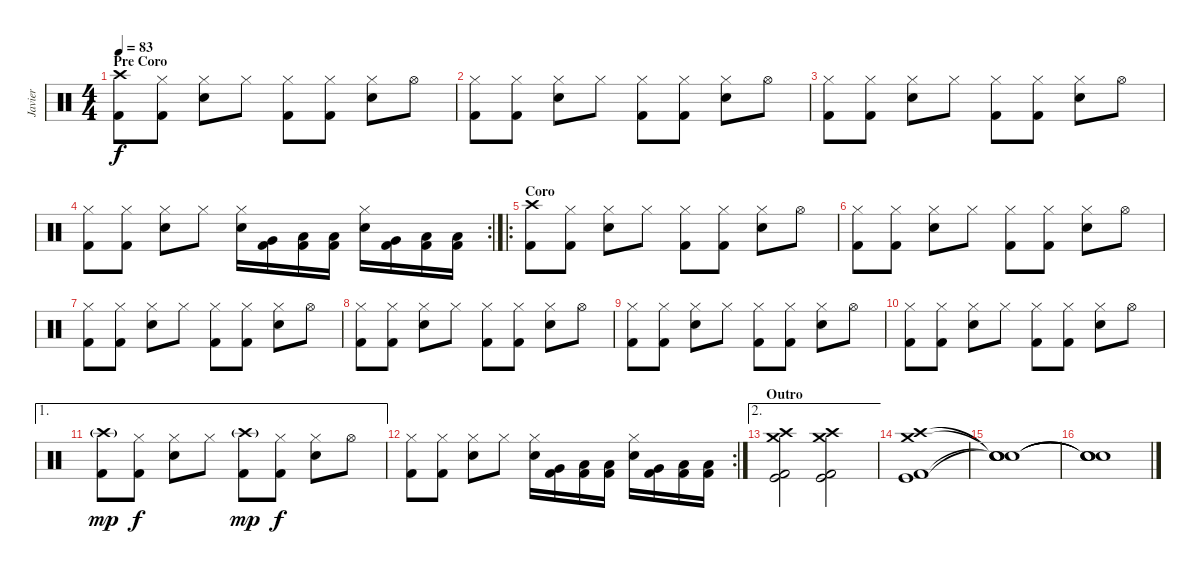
\track ("Javier" "Javier") {instrument percussion}
\staff {score}
\articulation defaults
\ts (4 4)
\section ("" "Pre Coro")
\tempo 83
\clef neutral
\ks c
("Crash high (hit)" "Kick (hit) 2").8{dy f} ("Hi-Hat (closed)" "Kick (hit) 2").8 ("Hi-Hat (closed)" "Snare (hit) 2").8 "Hi-Hat (closed)".8 ("Hi-Hat (closed)" "Kick (hit) 2").8 ("Hi-Hat (closed)" "Kick (hit) 2").8 ("Hi-Hat (closed)" "Snare (hit) 2").8 "Hi-Hat (open)".8 |
("Hi-Hat (closed)" "Kick (hit) 2").8 ("Hi-Hat (closed)" "Kick (hit) 2").8 ("Hi-Hat (closed)" "Snare (hit) 2").8 "Hi-Hat (closed)".8 ("Hi-Hat (closed)" "Kick (hit) 2").8 ("Hi-Hat (closed)" "Kick (hit) 2").8 ("Hi-Hat (closed)" "Snare (hit) 2").8 "Hi-Hat (open)".8 |
("Hi-Hat (closed)" "Kick (hit) 2").8 ("Hi-Hat (closed)" "Kick (hit) 2").8 ("Hi-Hat (closed)" "Snare (hit) 2").8 "Hi-Hat (closed)".8 ("Hi-Hat (closed)" "Kick (hit) 2").8 ("Hi-Hat (closed)" "Kick (hit) 2").8 ("Hi-Hat (closed)" "Snare (hit) 2").8 "Hi-Hat (open)".8 |
\rc 2
("Hi-Hat (closed)" "Kick (hit) 2").8 ("Hi-Hat (closed)" "Kick (hit) 2").8 ("Hi-Hat (closed)" "Snare (hit) 2").8 "Hi-Hat (closed)".8 ("Hi-Hat (closed)" "Snare (hit) 2").16 ("Very Low Tom (hit)" "Kick (hit) 2").16 ("Low Tom (hit)" "Kick (hit) 2").16 ("Low Floor Tom (hit)" "Kick (hit) 2").16 ("Hi-Hat (closed)" "Snare (hit) 2").16 ("Very Low Tom (hit)" "Kick (hit) 2").16 ("Low Tom (hit)" "Kick (hit) 2").16 ("Low Floor Tom (hit)" "Kick (hit) 2").16 |
\ro
\section ("" "Coro")
("Crash high (hit)" "Kick (hit) 2").8 ("Hi-Hat (closed)" "Kick (hit) 2").8 ("Hi-Hat (closed)" "Snare (hit) 2").8 "Hi-Hat (closed)".8 ("Hi-Hat (closed)" "Kick (hit) 2").8 ("Hi-Hat (closed)" "Kick (hit) 2").8 ("Hi-Hat (closed)" "Snare (hit) 2").8 "Hi-Hat (open)".8 |
("Hi-Hat (closed)" "Kick (hit) 2").8 ("Hi-Hat (closed)" "Kick (hit) 2").8 ("Hi-Hat (closed)" "Snare (hit) 2").8 "Hi-Hat (closed)".8 ("Hi-Hat (closed)" "Kick (hit) 2").8 ("Hi-Hat (closed)" "Kick (hit) 2").8 ("Hi-Hat (closed)" "Snare (hit) 2").8 "Hi-Hat (open)".8 |
("Hi-Hat (closed)" "Kick (hit) 2").8 ("Hi-Hat (closed)" "Kick (hit) 2").8 ("Hi-Hat (closed)" "Snare (hit) 2").8 "Hi-Hat (closed)".8 ("Hi-Hat (closed)" "Kick (hit) 2").8 ("Hi-Hat (closed)" "Kick (hit) 2").8 ("Hi-Hat (closed)" "Snare (hit) 2").8 "Hi-Hat (open)".8 |
("Hi-Hat (closed)" "Kick (hit) 2").8 ("Hi-Hat (closed)" "Kick (hit) 2").8 ("Hi-Hat (closed)" "Snare (hit) 2").8 "Hi-Hat (closed)".8 ("Hi-Hat (closed)" "Kick (hit) 2").8 ("Hi-Hat (closed)" "Kick (hit) 2").8 ("Hi-Hat (closed)" "Snare (hit) 2").8 "Hi-Hat (open)".8 |
("Hi-Hat (closed)" "Kick (hit) 2").8 ("Hi-Hat (closed)" "Kick (hit) 2").8 ("Hi-Hat (closed)" "Snare (hit) 2").8 "Hi-Hat (closed)".8 ("Hi-Hat (closed)" "Kick (hit) 2").8 ("Hi-Hat (closed)" "Kick (hit) 2").8 ("Hi-Hat (closed)" "Snare (hit) 2").8 "Hi-Hat (open)".8 |
("Hi-Hat (closed)" "Kick (hit) 2").8 ("Hi-Hat (closed)" "Kick (hit) 2").8 ("Hi-Hat (closed)" "Snare (hit) 2").8 "Hi-Hat (closed)".8 ("Hi-Hat (closed)" "Kick (hit) 2").8 ("Hi-Hat (closed)" "Kick (hit) 2").8 ("Hi-Hat (closed)" "Snare (hit) 2").8 "Hi-Hat (open)".8 |
\ae 1
("Crash high (hit)"{g} "Kick (hit) 2").8{dy mp} ("Hi-Hat (closed)" "Kick (hit) 2").8{dy f} ("Hi-Hat (closed)" "Snare (hit) 2").8 "Hi-Hat (closed)".8 ("Crash high (hit)"{g} "Kick (hit) 2").8{dy mp} ("Hi-Hat (closed)" "Kick (hit) 2").8{dy f} ("Hi-Hat (closed)" "Snare (hit) 2").8 "Hi-Hat (open)".8 |
\rc 2
("Hi-Hat (closed)" "Kick (hit) 2").8 ("Hi-Hat (closed)" "Kick (hit) 2").8 ("Hi-Hat (closed)" "Snare (hit) 2").8 "Hi-Hat (closed)".8 ("Hi-Hat (closed)" "Snare (hit) 2").16 ("Very Low Tom (hit)" "Kick (hit) 2").16 ("Low Tom (hit)" "Kick (hit) 2").16 ("Low Floor Tom (hit)" "Kick (hit) 2").16 ("Hi-Hat (closed)" "Snare (hit) 2").16 ("Very Low Tom (hit)" "Kick (hit) 2").16 ("Low Tom (hit)" "Kick (hit) 2").16 ("Low Floor Tom (hit)" "Kick (hit) 2").16 |
\ae 2
\section ("" "Outro")
("Crash medium (hit)" "Kick (hit) 2" "Crash high (hit)" "Kick (hit)").2 ("Crash medium (hit)" "Kick (hit) 2" "Crash high (hit)" "Kick (hit)").2 |
("Crash medium (hit)" "Kick (hit) 2" "Crash high (hit)" "Kick (hit)").1 |
("Snare (hit)"{t} "Snare (hit)"{t} "Snare (hit)"{t} "Snare (hit)"{t}).1 |
("Snare (hit)"{t} "Snare (hit)"{t} "Snare (hit)"{t} "Snare (hit)"{t}).1
